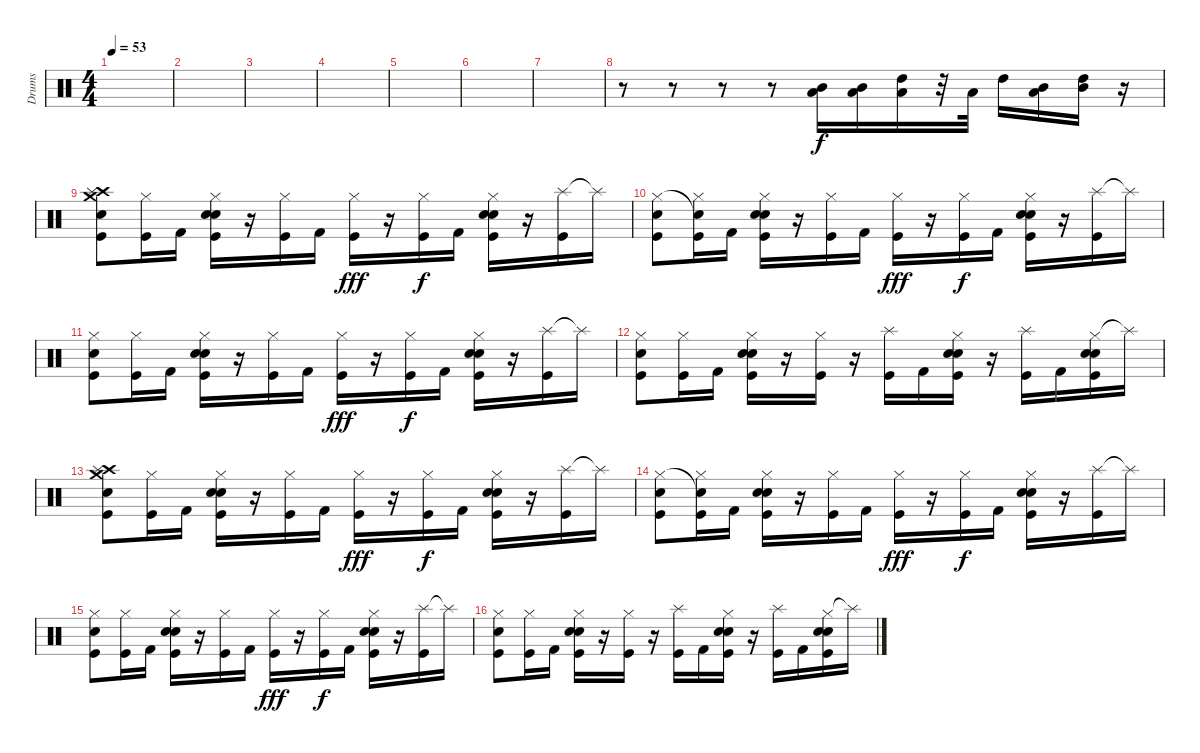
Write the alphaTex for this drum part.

\track ("Drums" "Drums") {instrument percussion}
\staff {score}
\articulation defaults
\ts (4 4)
\tempo 53
\clef neutral
\ks c
|
|
|
|
|
|
|
r.8 r.8 r.8 r.8 ("Mid Tom (hit)" "Low Tom (hit)").16 ("Mid Tom (hit)" "Low Tom (hit)").16 ("High Tom (hit)" "Low Tom (hit)").16 r.32 "Low Tom (hit)".32 "High Tom (hit)".16 ("Low Tom (hit)" "Mid Tom (hit)").16 ("High Tom (hit)" "Mid Tom (hit)").16 r.16 |
("Crash medium (hit)" "Crash high (hit)" "Splash (hit)" "Snare (hit) 2" "Kick (hit)").8 ("Hi-Hat (closed)" "Kick (hit)").16 "Kick (hit) 2".16 ("Hi-Hat (closed)" "Snare (hit) 2" "Electric Snare (hit)" "Kick (hit)").16 r.16 ("Hi-Hat (closed)" "Kick (hit)").16 "Kick (hit) 2".16 ("Hi-Hat (closed)" "Kick (hit)").16{dy fff} r.16 ("Hi-Hat (closed)" "Kick (hit)").16{dy f} "Kick (hit) 2".16 ("Hi-Hat (closed)" "Snare (hit) 2" "Electric Snare (hit)" "Kick (hit)").16 r.16 ("Splash (hit)" "Kick (hit)").16 "Splash (hit)"{t}.16 |
("Hi-Hat (closed)" "Electric Snare (hit)" "Kick (hit)").8 ("Snare (hit)"{t} "Hi-Hat (closed)" "Kick (hit)").16 "Kick (hit) 2".16 ("Hi-Hat (closed)" "Snare (hit) 2" "Electric Snare (hit)" "Kick (hit)").16 r.16 ("Hi-Hat (closed)" "Kick (hit)").16 "Kick (hit) 2".16 ("Hi-Hat (closed)" "Kick (hit)").16{dy fff} r.16 ("Hi-Hat (closed)" "Kick (hit)").16{dy f} "Kick (hit) 2".16 ("Hi-Hat (closed)" "Snare (hit) 2" "Electric Snare (hit)" "Kick (hit)").16 r.16 ("Splash (hit)" "Kick (hit)").16 "Splash (hit)"{t}.16 |
("Hi-Hat (closed)" "Electric Snare (hit)" "Kick (hit)").8 ("Hi-Hat (closed)" "Kick (hit)").16 "Kick (hit) 2".16 ("Hi-Hat (closed)" "Snare (hit) 2" "Electric Snare (hit)" "Kick (hit)").16 r.16 ("Hi-Hat (closed)" "Kick (hit)").16 "Kick (hit) 2".16 ("Hi-Hat (closed)" "Kick (hit)").16{dy fff} r.16 ("Hi-Hat (closed)" "Kick (hit)").16{dy f} "Kick (hit) 2".16 ("Hi-Hat (closed)" "Snare (hit) 2" "Electric Snare (hit)" "Kick (hit)").16 r.16 ("Splash (hit)" "Kick (hit)").16 "Splash (hit)"{t}.16 |
("Hi-Hat (closed)" "Electric Snare (hit)" "Kick (hit)").8 ("Hi-Hat (closed)" "Kick (hit)").16 "Kick (hit) 2".16 ("Hi-Hat (closed)" "Snare (hit) 2" "Electric Snare (hit)" "Kick (hit)").16 r.16 ("Hi-Hat (closed)" "Kick (hit)").16 r.16 ("Splash (hit)" "Kick (hit)").16 "Kick (hit) 2".16 ("Hi-Hat (closed)" "Snare (hit) 2" "Electric Snare (hit)" "Kick (hit)").16 r.16 ("Splash (hit)" "Kick (hit)").16 "Kick (hit) 2".16 ("Hi-Hat (closed)" "Snare (hit) 2" "Electric Snare (hit)" "Kick (hit)").16 "Splash (hit)"{t}.16 |
("Crash medium (hit)" "Crash high (hit)" "Splash (hit)" "Snare (hit) 2" "Kick (hit)").8 ("Hi-Hat (closed)" "Kick (hit)").16 "Kick (hit) 2".16 ("Hi-Hat (closed)" "Snare (hit) 2" "Electric Snare (hit)" "Kick (hit)").16 r.16 ("Hi-Hat (closed)" "Kick (hit)").16 "Kick (hit) 2".16 ("Hi-Hat (closed)" "Kick (hit)").16{dy fff} r.16 ("Hi-Hat (closed)" "Kick (hit)").16{dy f} "Kick (hit) 2".16 ("Hi-Hat (closed)" "Snare (hit) 2" "Electric Snare (hit)" "Kick (hit)").16 r.16 ("Splash (hit)" "Kick (hit)").16 "Splash (hit)"{t}.16 |
("Hi-Hat (closed)" "Electric Snare (hit)" "Kick (hit)").8 ("Snare (hit)"{t} "Hi-Hat (closed)" "Kick (hit)").16 "Kick (hit) 2".16 ("Hi-Hat (closed)" "Snare (hit) 2" "Electric Snare (hit)" "Kick (hit)").16 r.16 ("Hi-Hat (closed)" "Kick (hit)").16 "Kick (hit) 2".16 ("Hi-Hat (closed)" "Kick (hit)").16{dy fff} r.16 ("Hi-Hat (closed)" "Kick (hit)").16{dy f} "Kick (hit) 2".16 ("Hi-Hat (closed)" "Snare (hit) 2" "Electric Snare (hit)" "Kick (hit)").16 r.16 ("Splash (hit)" "Kick (hit)").16 "Splash (hit)"{t}.16 |
("Hi-Hat (closed)" "Electric Snare (hit)" "Kick (hit)").8 ("Hi-Hat (closed)" "Kick (hit)").16 "Kick (hit) 2".16 ("Hi-Hat (closed)" "Snare (hit) 2" "Electric Snare (hit)" "Kick (hit)").16 r.16 ("Hi-Hat (closed)" "Kick (hit)").16 "Kick (hit) 2".16 ("Hi-Hat (closed)" "Kick (hit)").16{dy fff} r.16 ("Hi-Hat (closed)" "Kick (hit)").16{dy f} "Kick (hit) 2".16 ("Hi-Hat (closed)" "Snare (hit) 2" "Electric Snare (hit)" "Kick (hit)").16 r.16 ("Splash (hit)" "Kick (hit)").16 "Splash (hit)"{t}.16 |
("Hi-Hat (closed)" "Electric Snare (hit)" "Kick (hit)").8 ("Hi-Hat (closed)" "Kick (hit)").16 "Kick (hit) 2".16 ("Hi-Hat (closed)" "Snare (hit) 2" "Electric Snare (hit)" "Kick (hit)").16 r.16 ("Hi-Hat (closed)" "Kick (hit)").16 r.16 ("Splash (hit)" "Kick (hit)").16 "Kick (hit) 2".16 ("Hi-Hat (closed)" "Snare (hit) 2" "Electric Snare (hit)" "Kick (hit)").16 r.16 ("Splash (hit)" "Kick (hit)").16 "Kick (hit) 2".16 ("Hi-Hat (closed)" "Snare (hit) 2" "Electric Snare (hit)" "Kick (hit)").16 "Splash (hit)"{t}.16
